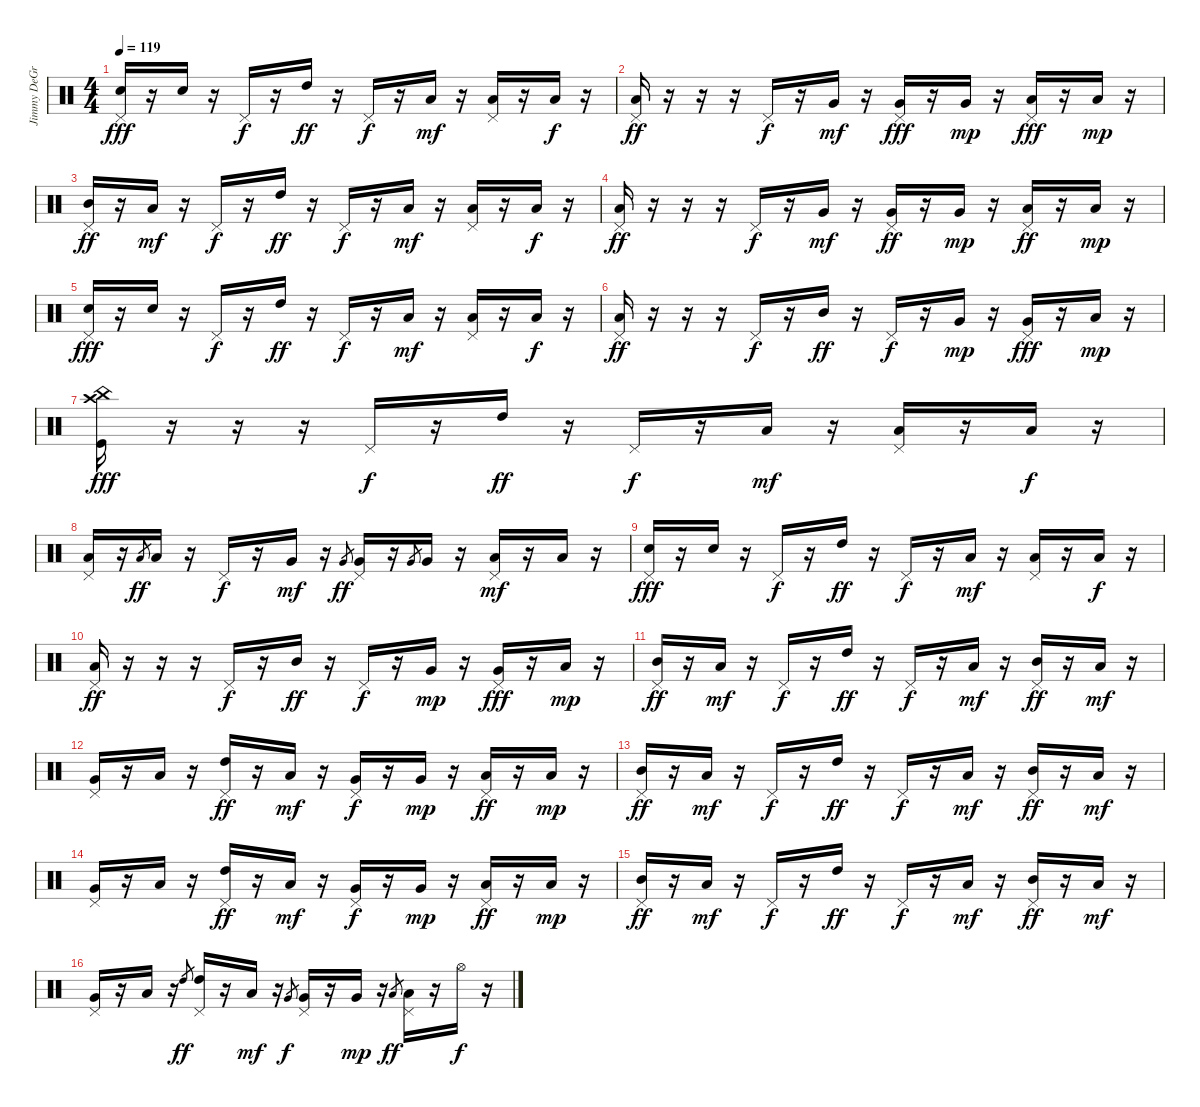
\track ("Jimmy DeGrasso" "Jimmy DeGr") {instrument percussion}
\staff {score}
\articulation defaults
\ts (4 4)
\tempo 119
\clef neutral
\ks c
("Electric Snare (hit)" "Pedal Hi-Hat (hit)").16{dy fff} r.16 "Electric Snare (hit)".16 r.16 "Pedal Hi-Hat (hit)".16{dy f} r.16 "High Tom (hit)".16{dy ff} r.16 "Pedal Hi-Hat (hit)".16{dy f} r.16 "Low Floor Tom (hit)".16{dy mf} r.16 ("Low Floor Tom (hit)" "Pedal Hi-Hat (hit)").16 r.16 "Low Floor Tom (hit)".16{dy f} r.16 |
("Low Floor Tom (hit)" "Pedal Hi-Hat (hit)").16{dy ff} r.16 r.16 r.16 "Pedal Hi-Hat (hit)".16{dy f} r.16 "Very Low Tom (hit)".16{dy mf} r.16 ("Very Low Tom (hit)" "Pedal Hi-Hat (hit)").16{dy fff} r.16 "Very Low Tom (hit)".16{dy mp} r.16 ("Low Floor Tom (hit)" "Pedal Hi-Hat (hit)").16{dy fff} r.16 "Low Floor Tom (hit)".16{dy mp} r.16 |
("Mid Tom (hit)" "Pedal Hi-Hat (hit)").16{dy ff} r.16 "Low Floor Tom (hit)".16{dy mf} r.16 "Pedal Hi-Hat (hit)".16{dy f} r.16 "High Tom (hit)".16{dy ff} r.16 "Pedal Hi-Hat (hit)".16{dy f} r.16 "Low Floor Tom (hit)".16{dy mf} r.16 ("Low Floor Tom (hit)" "Pedal Hi-Hat (hit)").16 r.16 "Low Floor Tom (hit)".16{dy f} r.16 |
("Low Floor Tom (hit)" "Pedal Hi-Hat (hit)").16{dy ff} r.16 r.16 r.16 "Pedal Hi-Hat (hit)".16{dy f} r.16 "Very Low Tom (hit)".16{dy mf} r.16 ("Very Low Tom (hit)" "Pedal Hi-Hat (hit)").16{dy ff} r.16 "Very Low Tom (hit)".16{dy mp} r.16 ("Low Floor Tom (hit)" "Pedal Hi-Hat (hit)").16{dy ff} r.16 "Low Floor Tom (hit)".16{dy mp} r.16 |
("Electric Snare (hit)" "Pedal Hi-Hat (hit)").16{dy fff} r.16 "Electric Snare (hit)".16 r.16 "Pedal Hi-Hat (hit)".16{dy f} r.16 "High Tom (hit)".16{dy ff} r.16 "Pedal Hi-Hat (hit)".16{dy f} r.16 "Low Floor Tom (hit)".16{dy mf} r.16 ("Low Floor Tom (hit)" "Pedal Hi-Hat (hit)").16 r.16 "Low Floor Tom (hit)".16{dy f} r.16 |
("Low Floor Tom (hit)" "Pedal Hi-Hat (hit)").16{dy ff} r.16 r.16 r.16 "Pedal Hi-Hat (hit)".16{dy f} r.16 "Mid Tom (hit)".16{dy ff} r.16 "Pedal Hi-Hat (hit)".16{dy f} r.16 "Very Low Tom (hit)".16{dy mp} r.16 ("Very Low Tom (hit)" "Pedal Hi-Hat (hit)").16{dy fff} r.16 "Low Floor Tom (hit)".16{dy mp} r.16 |
("Kick (hit)" "China (hit)" "Crash high (hit)").16{dy fff} r.16 r.16 r.16 "Pedal Hi-Hat (hit)".16{dy f} r.16 "High Tom (hit)".16{dy ff} r.16 "Pedal Hi-Hat (hit)".16{dy f} r.16 "Low Floor Tom (hit)".16{dy mf} r.16 ("Low Floor Tom (hit)" "Pedal Hi-Hat (hit)").16 r.16 "Low Floor Tom (hit)".16{dy f} r.16 |
("Low Floor Tom (hit)" "Pedal Hi-Hat (hit)").16 r.16 "Low Tom (hit)".8{gr dy ff} "Low Tom (hit)".16 r.16 "Pedal Hi-Hat (hit)".16{dy f} r.16 "Very Low Tom (hit)".16{dy mf} r.16 "Very Low Tom (hit)".8{gr dy ff} ("Very Low Tom (hit)" "Pedal Hi-Hat (hit)").16 r.16 "Very Low Tom (hit)".8{gr} "Very Low Tom (hit)".16 r.16 ("Low Floor Tom (hit)" "Pedal Hi-Hat (hit)").16{dy mf} r.16 "Low Floor Tom (hit)".16 r.16 |
("Electric Snare (hit)" "Pedal Hi-Hat (hit)").16{dy fff} r.16 "Electric Snare (hit)".16 r.16 "Pedal Hi-Hat (hit)".16{dy f} r.16 "High Tom (hit)".16{dy ff} r.16 "Pedal Hi-Hat (hit)".16{dy f} r.16 "Low Floor Tom (hit)".16{dy mf} r.16 ("Low Floor Tom (hit)" "Pedal Hi-Hat (hit)").16 r.16 "Low Floor Tom (hit)".16{dy f} r.16 |
("Low Floor Tom (hit)" "Pedal Hi-Hat (hit)").16{dy ff} r.16 r.16 r.16 "Pedal Hi-Hat (hit)".16{dy f} r.16 "Mid Tom (hit)".16{dy ff} r.16 "Pedal Hi-Hat (hit)".16{dy f} r.16 "Very Low Tom (hit)".16{dy mp} r.16 ("Very Low Tom (hit)" "Pedal Hi-Hat (hit)").16{dy fff} r.16 "Low Floor Tom (hit)".16{dy mp} r.16 |
("Mid Tom (hit)" "Pedal Hi-Hat (hit)").16{dy ff} r.16 "Low Floor Tom (hit)".16{dy mf} r.16 "Pedal Hi-Hat (hit)".16{dy f} r.16 "High Tom (hit)".16{dy ff} r.16 "Pedal Hi-Hat (hit)".16{dy f} r.16 "Low Floor Tom (hit)".16{dy mf} r.16 ("Mid Tom (hit)" "Pedal Hi-Hat (hit)").16{dy ff} r.16 "Low Tom (hit)".16{dy mf} r.16 |
("Very Low Tom (hit)" "Pedal Hi-Hat (hit)").16 r.16 "Low Floor Tom (hit)".16 r.16 ("High Tom (hit)" "Pedal Hi-Hat (hit)").16{dy ff} r.16 "Low Floor Tom (hit)".16{dy mf} r.16 ("Very Low Tom (hit)" "Pedal Hi-Hat (hit)").16{dy f} r.16 "Very Low Tom (hit)".16{dy mp} r.16 ("Low Floor Tom (hit)" "Pedal Hi-Hat (hit)").16{dy ff} r.16 "Low Floor Tom (hit)".16{dy mp} r.16 |
("Mid Tom (hit)" "Pedal Hi-Hat (hit)").16{dy ff} r.16 "Low Floor Tom (hit)".16{dy mf} r.16 "Pedal Hi-Hat (hit)".16{dy f} r.16 "High Tom (hit)".16{dy ff} r.16 "Pedal Hi-Hat (hit)".16{dy f} r.16 "Low Floor Tom (hit)".16{dy mf} r.16 ("Mid Tom (hit)" "Pedal Hi-Hat (hit)").16{dy ff} r.16 "Low Tom (hit)".16{dy mf} r.16 |
("Very Low Tom (hit)" "Pedal Hi-Hat (hit)").16 r.16 "Low Floor Tom (hit)".16 r.16 ("High Tom (hit)" "Pedal Hi-Hat (hit)").16{dy ff} r.16 "Low Floor Tom (hit)".16{dy mf} r.16 ("Very Low Tom (hit)" "Pedal Hi-Hat (hit)").16{dy f} r.16 "Very Low Tom (hit)".16{dy mp} r.16 ("Low Floor Tom (hit)" "Pedal Hi-Hat (hit)").16{dy ff} r.16 "Low Floor Tom (hit)".16{dy mp} r.16 |
("Mid Tom (hit)" "Pedal Hi-Hat (hit)").16{dy ff} r.16 "Low Floor Tom (hit)".16{dy mf} r.16 "Pedal Hi-Hat (hit)".16{dy f} r.16 "High Tom (hit)".16{dy ff} r.16 "Pedal Hi-Hat (hit)".16{dy f} r.16 "Low Floor Tom (hit)".16{dy mf} r.16 ("Mid Tom (hit)" "Pedal Hi-Hat (hit)").16{dy ff} r.16 "Low Tom (hit)".16{dy mf} r.16 |
("Very Low Tom (hit)" "Pedal Hi-Hat (hit)").16 r.16 "Low Floor Tom (hit)".16 r.16 "High Tom (hit)".8{gr dy ff} ("High Tom (hit)" "Pedal Hi-Hat (hit)").16 r.16 "Low Floor Tom (hit)".16{dy mf} r.16 "Very Low Tom (hit)".8{gr dy f} ("Very Low Tom (hit)" "Pedal Hi-Hat (hit)").16 r.16 "Very Low Tom (hit)".16{dy mp} r.16 "Low Floor Tom (hit)".8{gr dy ff} ("Low Floor Tom (hit)" "Pedal Hi-Hat (hit)").16 r.16 "Hi-Hat (open)".16{dy f} r.16
